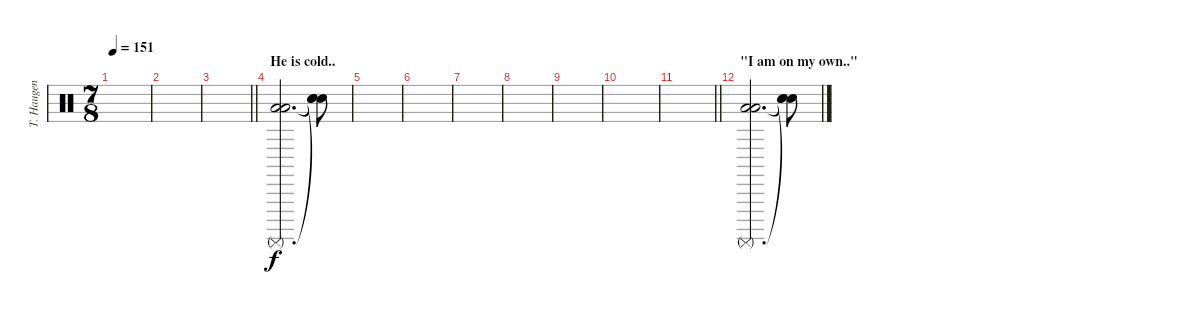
\track ("T. Haugen" "T. Haugen") {instrument percussion}
\staff {score}
\articulation defaults
\ts (7 8)
\tempo 151
\clef neutral
\ks c
|
|
\barLineRight lightlight
|
\section ("" "He is cold..")
("Surdo (mute)" "Low Floor Tom (hit)" "Low Floor Tom (hit)").2{d} ("Snare (hit)"{t} "Snare (hit)"{t} "Snare (hit)"{t}).8 |
|
|
|
|
|
|
\barLineRight lightlight
|
\section ("" "\"I am on my own..\"")
("Surdo (mute)" "Low Floor Tom (hit)" "Low Floor Tom (hit)").2{d} ("Snare (hit)"{t} "Snare (hit)"{t} "Snare (hit)"{t}).8
